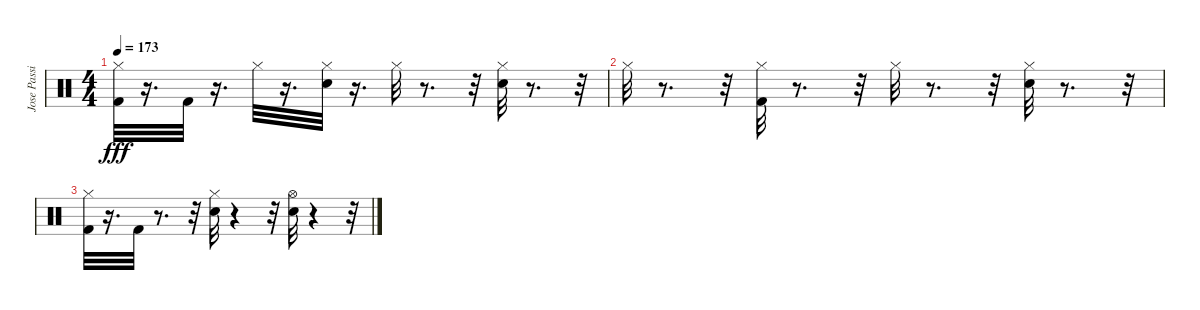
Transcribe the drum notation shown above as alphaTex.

\track ("Jose Passilas-Drums" "Jose Passi") {instrument percussion}
\staff {score}
\articulation defaults
\ts (4 4)
\tempo 173
\clef neutral
\ks c
("Hi-Hat (closed)" "Kick (hit) 2").32{dy fff} r.16{d} "Kick (hit) 2".32 r.16{d} "Hi-Hat (closed)".32 r.16{d} ("Hi-Hat (closed)" "Electric Snare (hit)").32 r.16{d} "Hi-Hat (closed)".32 r.8{d} r.32 ("Hi-Hat (closed)" "Electric Snare (hit)").32 r.8{d} r.32 |
"Hi-Hat (closed)".32 r.8{d} r.32 ("Hi-Hat (closed)" "Kick (hit) 2").32 r.8{d} r.32 "Hi-Hat (closed)".32 r.8{d} r.32 ("Hi-Hat (closed)" "Electric Snare (hit)").32 r.8{d} r.32 |
("Hi-Hat (closed)" "Kick (hit) 2").32 r.16{d} "Kick (hit) 2".32 r.8{d} r.32 ("Hi-Hat (closed)" "Electric Snare (hit)").32 r.4 r.32 ("Hi-Hat (open)" "Electric Snare (hit)").32 r.4 r.32
